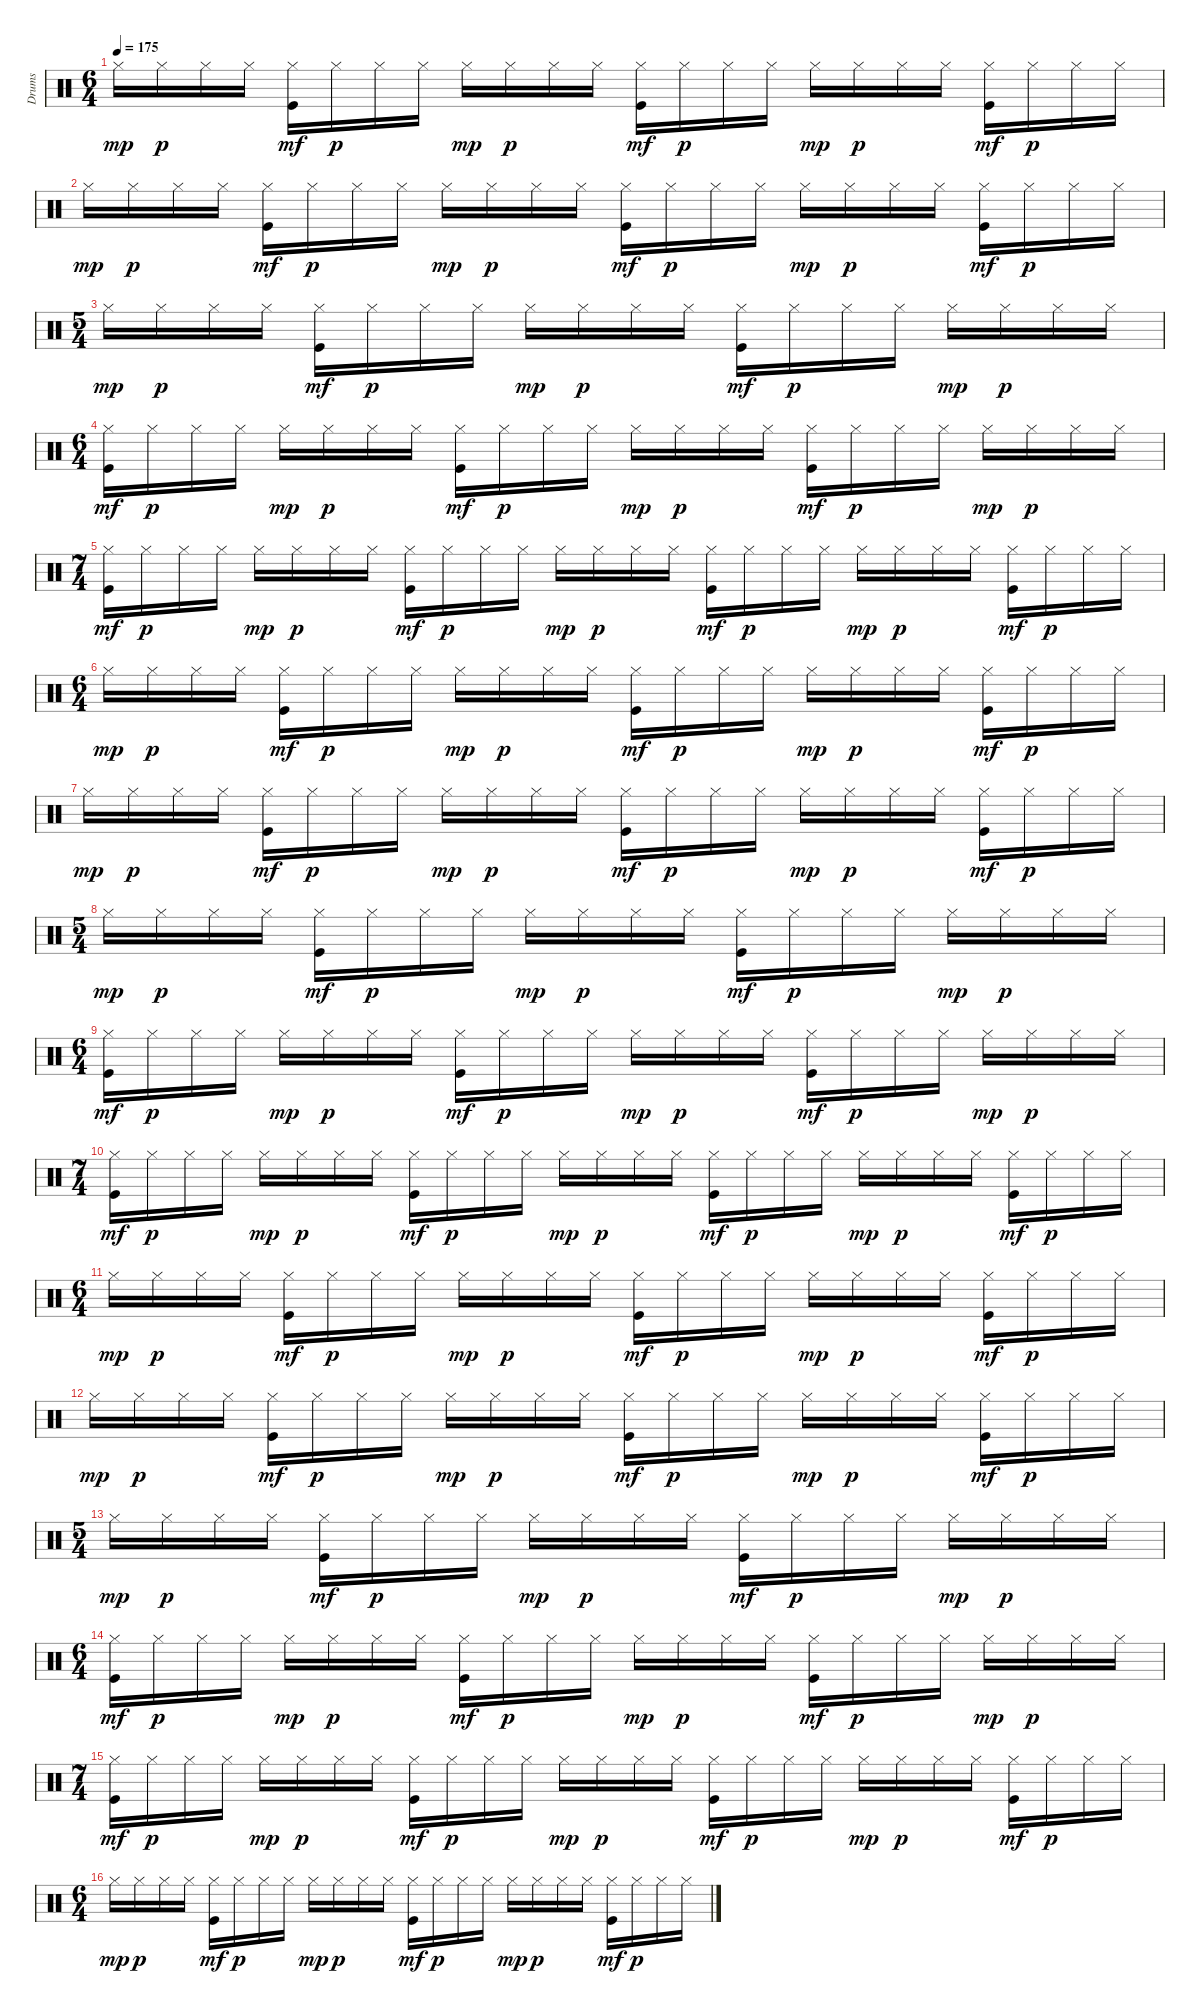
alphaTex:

\track ("Drums" "Drums") {instrument percussion}
\staff {score}
\articulation defaults
\ts (6 4)
\tempo 175
\clef neutral
\ks c "Hi-Hat (closed)".16{dy mp} "Hi-Hat (closed)".16{dy p} "Hi-Hat (closed)".16 "Hi-Hat (closed)".16
("Hi-Hat (closed)" "Kick (hit)").16{dy mf} "Hi-Hat (closed)".16{dy p} "Hi-Hat (closed)".16 "Hi-Hat (closed)".16 "Hi-Hat (closed)".16{dy mp} "Hi-Hat (closed)".16{dy p} "Hi-Hat (closed)".16 "Hi-Hat (closed)".16 ("Hi-Hat (closed)" "Kick (hit)").16{dy mf} "Hi-Hat (closed)".16{dy p} "Hi-Hat (closed)".16 "Hi-Hat (closed)".16 "Hi-Hat (closed)".16{dy mp} "Hi-Hat (closed)".16{dy p} "Hi-Hat (closed)".16 "Hi-Hat (closed)".16 ("Hi-Hat (closed)" "Kick (hit)").16{dy mf} "Hi-Hat (closed)".16{dy p} "Hi-Hat (closed)".16 "Hi-Hat (closed)".16 |
"Hi-Hat (closed)".16{dy mp} "Hi-Hat (closed)".16{dy p} "Hi-Hat (closed)".16 "Hi-Hat (closed)".16 ("Hi-Hat (closed)" "Kick (hit)").16{dy mf} "Hi-Hat (closed)".16{dy p} "Hi-Hat (closed)".16 "Hi-Hat (closed)".16 "Hi-Hat (closed)".16{dy mp} "Hi-Hat (closed)".16{dy p} "Hi-Hat (closed)".16 "Hi-Hat (closed)".16 ("Hi-Hat (closed)" "Kick (hit)").16{dy mf} "Hi-Hat (closed)".16{dy p} "Hi-Hat (closed)".16 "Hi-Hat (closed)".16 "Hi-Hat (closed)".16{dy mp} "Hi-Hat (closed)".16{dy p} "Hi-Hat (closed)".16 "Hi-Hat (closed)".16 ("Hi-Hat (closed)" "Kick (hit)").16{dy mf} "Hi-Hat (closed)".16{dy p} "Hi-Hat (closed)".16 "Hi-Hat (closed)".16 |
\ts (5 4)
"Hi-Hat (closed)".16{dy mp} "Hi-Hat (closed)".16{dy p} "Hi-Hat (closed)".16 "Hi-Hat (closed)".16 ("Hi-Hat (closed)" "Kick (hit)").16{dy mf} "Hi-Hat (closed)".16{dy p} "Hi-Hat (closed)".16 "Hi-Hat (closed)".16 "Hi-Hat (closed)".16{dy mp} "Hi-Hat (closed)".16{dy p} "Hi-Hat (closed)".16 "Hi-Hat (closed)".16 ("Hi-Hat (closed)" "Kick (hit)").16{dy mf} "Hi-Hat (closed)".16{dy p} "Hi-Hat (closed)".16 "Hi-Hat (closed)".16 "Hi-Hat (closed)".16{dy mp} "Hi-Hat (closed)".16{dy p} "Hi-Hat (closed)".16 "Hi-Hat (closed)".16 |
\ts (6 4)
("Hi-Hat (closed)" "Kick (hit)").16{dy mf} "Hi-Hat (closed)".16{dy p} "Hi-Hat (closed)".16 "Hi-Hat (closed)".16 "Hi-Hat (closed)".16{dy mp} "Hi-Hat (closed)".16{dy p} "Hi-Hat (closed)".16 "Hi-Hat (closed)".16 ("Hi-Hat (closed)" "Kick (hit)").16{dy mf} "Hi-Hat (closed)".16{dy p} "Hi-Hat (closed)".16 "Hi-Hat (closed)".16 "Hi-Hat (closed)".16{dy mp} "Hi-Hat (closed)".16{dy p} "Hi-Hat (closed)".16 "Hi-Hat (closed)".16 ("Hi-Hat (closed)" "Kick (hit)").16{dy mf} "Hi-Hat (closed)".16{dy p} "Hi-Hat (closed)".16 "Hi-Hat (closed)".16 "Hi-Hat (closed)".16{dy mp} "Hi-Hat (closed)".16{dy p} "Hi-Hat (closed)".16 "Hi-Hat (closed)".16 |
\ts (7 4)
("Hi-Hat (closed)" "Kick (hit)").16{dy mf} "Hi-Hat (closed)".16{dy p} "Hi-Hat (closed)".16 "Hi-Hat (closed)".16 "Hi-Hat (closed)".16{dy mp} "Hi-Hat (closed)".16{dy p} "Hi-Hat (closed)".16 "Hi-Hat (closed)".16 ("Hi-Hat (closed)" "Kick (hit)").16{dy mf} "Hi-Hat (closed)".16{dy p} "Hi-Hat (closed)".16 "Hi-Hat (closed)".16 "Hi-Hat (closed)".16{dy mp} "Hi-Hat (closed)".16{dy p} "Hi-Hat (closed)".16 "Hi-Hat (closed)".16 ("Hi-Hat (closed)" "Kick (hit)").16{dy mf} "Hi-Hat (closed)".16{dy p} "Hi-Hat (closed)".16 "Hi-Hat (closed)".16 "Hi-Hat (closed)".16{dy mp} "Hi-Hat (closed)".16{dy p} "Hi-Hat (closed)".16 "Hi-Hat (closed)".16 ("Hi-Hat (closed)" "Kick (hit)").16{dy mf} "Hi-Hat (closed)".16{dy p} "Hi-Hat (closed)".16 "Hi-Hat (closed)".16 |
\ts (6 4)
"Hi-Hat (closed)".16{dy mp} "Hi-Hat (closed)".16{dy p} "Hi-Hat (closed)".16 "Hi-Hat (closed)".16 ("Hi-Hat (closed)" "Kick (hit)").16{dy mf} "Hi-Hat (closed)".16{dy p} "Hi-Hat (closed)".16 "Hi-Hat (closed)".16 "Hi-Hat (closed)".16{dy mp} "Hi-Hat (closed)".16{dy p} "Hi-Hat (closed)".16 "Hi-Hat (closed)".16 ("Hi-Hat (closed)" "Kick (hit)").16{dy mf} "Hi-Hat (closed)".16{dy p} "Hi-Hat (closed)".16 "Hi-Hat (closed)".16 "Hi-Hat (closed)".16{dy mp} "Hi-Hat (closed)".16{dy p} "Hi-Hat (closed)".16 "Hi-Hat (closed)".16 ("Hi-Hat (closed)" "Kick (hit)").16{dy mf} "Hi-Hat (closed)".16{dy p} "Hi-Hat (closed)".16 "Hi-Hat (closed)".16 |
"Hi-Hat (closed)".16{dy mp} "Hi-Hat (closed)".16{dy p} "Hi-Hat (closed)".16 "Hi-Hat (closed)".16 ("Hi-Hat (closed)" "Kick (hit)").16{dy mf} "Hi-Hat (closed)".16{dy p} "Hi-Hat (closed)".16 "Hi-Hat (closed)".16 "Hi-Hat (closed)".16{dy mp} "Hi-Hat (closed)".16{dy p} "Hi-Hat (closed)".16 "Hi-Hat (closed)".16 ("Hi-Hat (closed)" "Kick (hit)").16{dy mf} "Hi-Hat (closed)".16{dy p} "Hi-Hat (closed)".16 "Hi-Hat (closed)".16 "Hi-Hat (closed)".16{dy mp} "Hi-Hat (closed)".16{dy p} "Hi-Hat (closed)".16 "Hi-Hat (closed)".16 ("Hi-Hat (closed)" "Kick (hit)").16{dy mf} "Hi-Hat (closed)".16{dy p} "Hi-Hat (closed)".16 "Hi-Hat (closed)".16 |
\ts (5 4)
"Hi-Hat (closed)".16{dy mp} "Hi-Hat (closed)".16{dy p} "Hi-Hat (closed)".16 "Hi-Hat (closed)".16 ("Hi-Hat (closed)" "Kick (hit)").16{dy mf} "Hi-Hat (closed)".16{dy p} "Hi-Hat (closed)".16 "Hi-Hat (closed)".16 "Hi-Hat (closed)".16{dy mp} "Hi-Hat (closed)".16{dy p} "Hi-Hat (closed)".16 "Hi-Hat (closed)".16 ("Hi-Hat (closed)" "Kick (hit)").16{dy mf} "Hi-Hat (closed)".16{dy p} "Hi-Hat (closed)".16 "Hi-Hat (closed)".16 "Hi-Hat (closed)".16{dy mp} "Hi-Hat (closed)".16{dy p} "Hi-Hat (closed)".16 "Hi-Hat (closed)".16 |
\ts (6 4)
("Hi-Hat (closed)" "Kick (hit)").16{dy mf} "Hi-Hat (closed)".16{dy p} "Hi-Hat (closed)".16 "Hi-Hat (closed)".16 "Hi-Hat (closed)".16{dy mp} "Hi-Hat (closed)".16{dy p} "Hi-Hat (closed)".16 "Hi-Hat (closed)".16 ("Hi-Hat (closed)" "Kick (hit)").16{dy mf} "Hi-Hat (closed)".16{dy p} "Hi-Hat (closed)".16 "Hi-Hat (closed)".16 "Hi-Hat (closed)".16{dy mp} "Hi-Hat (closed)".16{dy p} "Hi-Hat (closed)".16 "Hi-Hat (closed)".16 ("Hi-Hat (closed)" "Kick (hit)").16{dy mf} "Hi-Hat (closed)".16{dy p} "Hi-Hat (closed)".16 "Hi-Hat (closed)".16 "Hi-Hat (closed)".16{dy mp} "Hi-Hat (closed)".16{dy p} "Hi-Hat (closed)".16 "Hi-Hat (closed)".16 |
\ts (7 4)
("Hi-Hat (closed)" "Kick (hit)").16{dy mf} "Hi-Hat (closed)".16{dy p} "Hi-Hat (closed)".16 "Hi-Hat (closed)".16 "Hi-Hat (closed)".16{dy mp} "Hi-Hat (closed)".16{dy p} "Hi-Hat (closed)".16 "Hi-Hat (closed)".16 ("Hi-Hat (closed)" "Kick (hit)").16{dy mf} "Hi-Hat (closed)".16{dy p} "Hi-Hat (closed)".16 "Hi-Hat (closed)".16 "Hi-Hat (closed)".16{dy mp} "Hi-Hat (closed)".16{dy p} "Hi-Hat (closed)".16 "Hi-Hat (closed)".16 ("Hi-Hat (closed)" "Kick (hit)").16{dy mf} "Hi-Hat (closed)".16{dy p} "Hi-Hat (closed)".16 "Hi-Hat (closed)".16 "Hi-Hat (closed)".16{dy mp} "Hi-Hat (closed)".16{dy p} "Hi-Hat (closed)".16 "Hi-Hat (closed)".16 ("Hi-Hat (closed)" "Kick (hit)").16{dy mf} "Hi-Hat (closed)".16{dy p} "Hi-Hat (closed)".16 "Hi-Hat (closed)".16 |
\ts (6 4)
"Hi-Hat (closed)".16{dy mp} "Hi-Hat (closed)".16{dy p} "Hi-Hat (closed)".16 "Hi-Hat (closed)".16 ("Hi-Hat (closed)" "Kick (hit)").16{dy mf} "Hi-Hat (closed)".16{dy p} "Hi-Hat (closed)".16 "Hi-Hat (closed)".16 "Hi-Hat (closed)".16{dy mp} "Hi-Hat (closed)".16{dy p} "Hi-Hat (closed)".16 "Hi-Hat (closed)".16 ("Hi-Hat (closed)" "Kick (hit)").16{dy mf} "Hi-Hat (closed)".16{dy p} "Hi-Hat (closed)".16 "Hi-Hat (closed)".16 "Hi-Hat (closed)".16{dy mp} "Hi-Hat (closed)".16{dy p} "Hi-Hat (closed)".16 "Hi-Hat (closed)".16 ("Hi-Hat (closed)" "Kick (hit)").16{dy mf} "Hi-Hat (closed)".16{dy p} "Hi-Hat (closed)".16 "Hi-Hat (closed)".16 |
"Hi-Hat (closed)".16{dy mp} "Hi-Hat (closed)".16{dy p} "Hi-Hat (closed)".16 "Hi-Hat (closed)".16 ("Hi-Hat (closed)" "Kick (hit)").16{dy mf} "Hi-Hat (closed)".16{dy p} "Hi-Hat (closed)".16 "Hi-Hat (closed)".16 "Hi-Hat (closed)".16{dy mp} "Hi-Hat (closed)".16{dy p} "Hi-Hat (closed)".16 "Hi-Hat (closed)".16 ("Hi-Hat (closed)" "Kick (hit)").16{dy mf} "Hi-Hat (closed)".16{dy p} "Hi-Hat (closed)".16 "Hi-Hat (closed)".16 "Hi-Hat (closed)".16{dy mp} "Hi-Hat (closed)".16{dy p} "Hi-Hat (closed)".16 "Hi-Hat (closed)".16 ("Hi-Hat (closed)" "Kick (hit)").16{dy mf} "Hi-Hat (closed)".16{dy p} "Hi-Hat (closed)".16 "Hi-Hat (closed)".16 |
\ts (5 4)
"Hi-Hat (closed)".16{dy mp} "Hi-Hat (closed)".16{dy p} "Hi-Hat (closed)".16 "Hi-Hat (closed)".16 ("Hi-Hat (closed)" "Kick (hit)").16{dy mf} "Hi-Hat (closed)".16{dy p} "Hi-Hat (closed)".16 "Hi-Hat (closed)".16 "Hi-Hat (closed)".16{dy mp} "Hi-Hat (closed)".16{dy p} "Hi-Hat (closed)".16 "Hi-Hat (closed)".16 ("Hi-Hat (closed)" "Kick (hit)").16{dy mf} "Hi-Hat (closed)".16{dy p} "Hi-Hat (closed)".16 "Hi-Hat (closed)".16 "Hi-Hat (closed)".16{dy mp} "Hi-Hat (closed)".16{dy p} "Hi-Hat (closed)".16 "Hi-Hat (closed)".16 |
\ts (6 4)
("Hi-Hat (closed)" "Kick (hit)").16{dy mf} "Hi-Hat (closed)".16{dy p} "Hi-Hat (closed)".16 "Hi-Hat (closed)".16 "Hi-Hat (closed)".16{dy mp} "Hi-Hat (closed)".16{dy p} "Hi-Hat (closed)".16 "Hi-Hat (closed)".16 ("Hi-Hat (closed)" "Kick (hit)").16{dy mf} "Hi-Hat (closed)".16{dy p} "Hi-Hat (closed)".16 "Hi-Hat (closed)".16 "Hi-Hat (closed)".16{dy mp} "Hi-Hat (closed)".16{dy p} "Hi-Hat (closed)".16 "Hi-Hat (closed)".16 ("Hi-Hat (closed)" "Kick (hit)").16{dy mf} "Hi-Hat (closed)".16{dy p} "Hi-Hat (closed)".16 "Hi-Hat (closed)".16 "Hi-Hat (closed)".16{dy mp} "Hi-Hat (closed)".16{dy p} "Hi-Hat (closed)".16 "Hi-Hat (closed)".16 |
\ts (7 4)
("Hi-Hat (closed)" "Kick (hit)").16{dy mf} "Hi-Hat (closed)".16{dy p} "Hi-Hat (closed)".16 "Hi-Hat (closed)".16 "Hi-Hat (closed)".16{dy mp} "Hi-Hat (closed)".16{dy p} "Hi-Hat (closed)".16 "Hi-Hat (closed)".16 ("Hi-Hat (closed)" "Kick (hit)").16{dy mf} "Hi-Hat (closed)".16{dy p} "Hi-Hat (closed)".16 "Hi-Hat (closed)".16 "Hi-Hat (closed)".16{dy mp} "Hi-Hat (closed)".16{dy p} "Hi-Hat (closed)".16 "Hi-Hat (closed)".16 ("Hi-Hat (closed)" "Kick (hit)").16{dy mf} "Hi-Hat (closed)".16{dy p} "Hi-Hat (closed)".16 "Hi-Hat (closed)".16 "Hi-Hat (closed)".16{dy mp} "Hi-Hat (closed)".16{dy p} "Hi-Hat (closed)".16 "Hi-Hat (closed)".16 ("Hi-Hat (closed)" "Kick (hit)").16{dy mf} "Hi-Hat (closed)".16{dy p} "Hi-Hat (closed)".16 "Hi-Hat (closed)".16 |
\ts (6 4)
"Hi-Hat (closed)".16{dy mp} "Hi-Hat (closed)".16{dy p} "Hi-Hat (closed)".16 "Hi-Hat (closed)".16 ("Hi-Hat (closed)" "Kick (hit)").16{dy mf} "Hi-Hat (closed)".16{dy p} "Hi-Hat (closed)".16 "Hi-Hat (closed)".16 "Hi-Hat (closed)".16{dy mp} "Hi-Hat (closed)".16{dy p} "Hi-Hat (closed)".16 "Hi-Hat (closed)".16 ("Hi-Hat (closed)" "Kick (hit)").16{dy mf} "Hi-Hat (closed)".16{dy p} "Hi-Hat (closed)".16 "Hi-Hat (closed)".16 "Hi-Hat (closed)".16{dy mp} "Hi-Hat (closed)".16{dy p} "Hi-Hat (closed)".16 "Hi-Hat (closed)".16 ("Hi-Hat (closed)" "Kick (hit)").16{dy mf} "Hi-Hat (closed)".16{dy p} "Hi-Hat (closed)".16 "Hi-Hat (closed)".16
